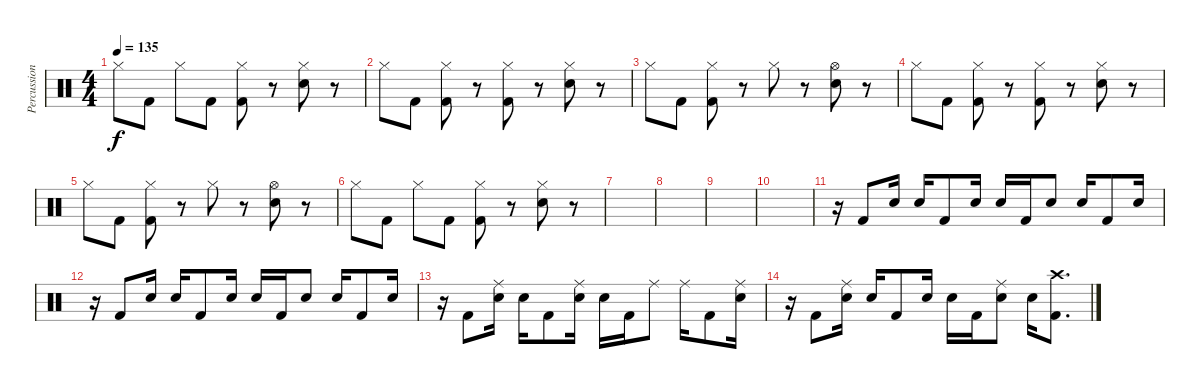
\track ("Percussion" "Percussion") {solo instrument percussion}
\staff {score}
\articulation defaults
\ts (4 4)
\tempo 135
\clef neutral
\ks c "Hi-Hat (closed)".8{dy f} "Kick (hit) 2".8 "Hi-Hat (closed)".8 "Kick (hit) 2".8
("Hi-Hat (closed)" "Kick (hit) 2").8 r.8 ("Hi-Hat (closed)" "Snare (hit) 2").8 r.8 |
"Hi-Hat (closed)".8 "Kick (hit) 2".8 ("Hi-Hat (closed)" "Kick (hit) 2").8 r.8 ("Hi-Hat (closed)" "Kick (hit) 2").8 r.8 ("Hi-Hat (closed)" "Snare (hit) 2").8 r.8 |
"Hi-Hat (closed)".8 "Kick (hit) 2".8 ("Hi-Hat (closed)" "Kick (hit) 2").8 r.8 "Hi-Hat (closed)".8 r.8 ("Hi-Hat (open)" "Snare (hit) 2").8 r.8 |
"Hi-Hat (closed)".8 "Kick (hit) 2".8 ("Hi-Hat (closed)" "Kick (hit) 2").8 r.8 ("Hi-Hat (closed)" "Kick (hit) 2").8 r.8 ("Hi-Hat (closed)" "Snare (hit) 2").8 r.8 |
"Hi-Hat (closed)".8 "Kick (hit) 2".8 ("Hi-Hat (closed)" "Kick (hit) 2").8 r.8 "Hi-Hat (closed)".8 r.8 ("Hi-Hat (open)" "Snare (hit) 2").8 r.8 |
"Hi-Hat (closed)".8 "Kick (hit) 2".8 "Hi-Hat (closed)".8 "Kick (hit) 2".8 ("Hi-Hat (closed)" "Kick (hit) 2").8 r.8 ("Hi-Hat (closed)" "Snare (hit) 2").8 r.8 |
|
|
|
|
r.16 "Kick (hit) 2".8 "Snare (hit) 2".16 "Snare (hit) 2".16 "Kick (hit) 2".8 "Snare (hit) 2".16 "Snare (hit) 2".16 "Kick (hit) 2".16 "Snare (hit) 2".8 "Snare (hit) 2".16 "Kick (hit) 2".8 "Snare (hit) 2".16 |
r.16 "Kick (hit) 2".8 "Snare (hit) 2".16 "Snare (hit) 2".16 "Kick (hit) 2".8 "Snare (hit) 2".16 "Snare (hit) 2".16 "Kick (hit) 2".16 "Snare (hit) 2".8 "Snare (hit) 2".16 "Kick (hit) 2".8 "Snare (hit) 2".16 |
r.16 "Kick (hit) 2".8 ("Ride (middle)" "Snare (hit) 2").16 "Snare (hit) 2".16 "Kick (hit) 2".8 ("Ride (middle)" "Snare (hit) 2").16 "Snare (hit) 2".16 "Kick (hit) 2".16 "Ride (middle)".8 "Ride (middle)".16 "Kick (hit) 2".8 ("Ride (middle)" "Snare (hit) 2").16 |
r.16 "Kick (hit) 2".8 ("Ride (middle)" "Snare (hit) 2").16 "Snare (hit) 2".16 "Kick (hit) 2".8 "Snare (hit) 2".16 "Snare (hit) 2".16 "Kick (hit) 2".16 ("Ride (middle)" "Snare (hit) 2").8 "Snare (hit) 2".16 ("Crash high (hit)" "Kick (hit) 2").8{d}
